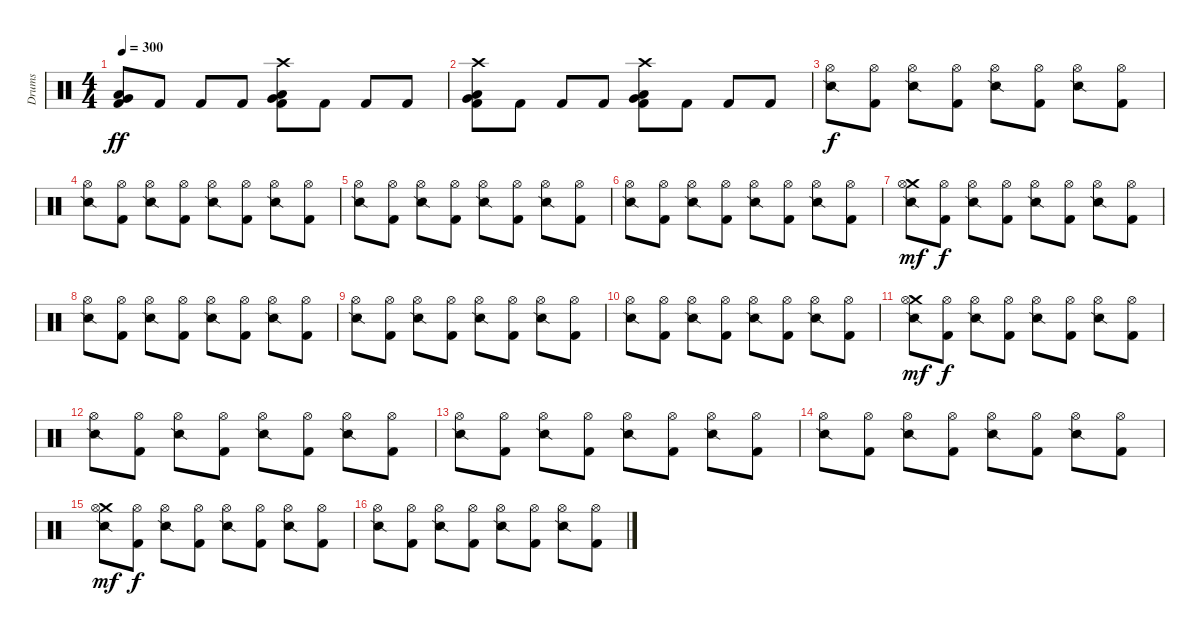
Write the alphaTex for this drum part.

\track (" Drums" " Drums") {instrument percussion}
\staff {score}
\articulation defaults
\ts (4 4)
\tempo 300
\clef neutral
\ks c
("Very Low Tom (hit)" "Low Tom (hit)" "Kick (hit) 2").8{dy ff} "Kick (hit) 2".8 "Kick (hit) 2".8 "Kick (hit) 2".8 ("Crash high (hit)" "Very Low Tom (hit)" "Low Tom (hit)" "Kick (hit) 2").8 "Kick (hit) 2".8 "Kick (hit) 2".8 "Kick (hit) 2".8 |
("Crash high (hit)" "Very Low Tom (hit)" "Low Tom (hit)" "Kick (hit) 2").8 "Kick (hit) 2".8 "Kick (hit) 2".8 "Kick (hit) 2".8 ("Crash high (hit)" "Very Low Tom (hit)" "Low Tom (hit)" "Kick (hit) 2").8 "Kick (hit) 2".8 "Kick (hit) 2".8 "Kick (hit) 2".8 |
("Hi-Hat (open)" "Snare (side stick) 2").8{dy f} ("Hi-Hat (open)" "Kick (hit) 2").8 ("Hi-Hat (open)" "Snare (side stick) 2").8 ("Hi-Hat (open)" "Kick (hit) 2").8 ("Hi-Hat (open)" "Snare (side stick) 2").8 ("Hi-Hat (open)" "Kick (hit) 2").8 ("Hi-Hat (open)" "Snare (side stick) 2").8 ("Hi-Hat (open)" "Kick (hit) 2").8 |
("Hi-Hat (open)" "Snare (side stick) 2").8 ("Hi-Hat (open)" "Kick (hit) 2").8 ("Hi-Hat (open)" "Snare (side stick) 2").8 ("Hi-Hat (open)" "Kick (hit) 2").8 ("Hi-Hat (open)" "Snare (side stick) 2").8 ("Hi-Hat (open)" "Kick (hit) 2").8 ("Hi-Hat (open)" "Snare (side stick) 2").8 ("Hi-Hat (open)" "Kick (hit) 2").8 |
("Hi-Hat (open)" "Snare (side stick) 2").8 ("Hi-Hat (open)" "Kick (hit) 2").8 ("Hi-Hat (open)" "Snare (side stick) 2").8 ("Hi-Hat (open)" "Kick (hit) 2").8 ("Hi-Hat (open)" "Snare (side stick) 2").8 ("Hi-Hat (open)" "Kick (hit) 2").8 ("Hi-Hat (open)" "Snare (side stick) 2").8 ("Hi-Hat (open)" "Kick (hit) 2").8 |
("Hi-Hat (open)" "Snare (side stick) 2").8 ("Hi-Hat (open)" "Kick (hit) 2").8 ("Hi-Hat (open)" "Snare (side stick) 2").8 ("Hi-Hat (open)" "Kick (hit) 2").8 ("Hi-Hat (open)" "Snare (side stick) 2").8 ("Hi-Hat (open)" "Kick (hit) 2").8 ("Hi-Hat (open)" "Snare (side stick) 2").8 ("Hi-Hat (open)" "Kick (hit) 2").8 |
("Crash medium (hit)" "Hi-Hat (open)" "Snare (side stick) 2").8{dy mf} ("Hi-Hat (open)" "Kick (hit) 2").8{dy f} ("Hi-Hat (open)" "Snare (side stick) 2").8 ("Hi-Hat (open)" "Kick (hit) 2").8 ("Hi-Hat (open)" "Snare (side stick) 2").8 ("Hi-Hat (open)" "Kick (hit) 2").8 ("Hi-Hat (open)" "Snare (side stick) 2").8 ("Hi-Hat (open)" "Kick (hit) 2").8 |
("Hi-Hat (open)" "Snare (side stick) 2").8 ("Hi-Hat (open)" "Kick (hit) 2").8 ("Hi-Hat (open)" "Snare (side stick) 2").8 ("Hi-Hat (open)" "Kick (hit) 2").8 ("Hi-Hat (open)" "Snare (side stick) 2").8 ("Hi-Hat (open)" "Kick (hit) 2").8 ("Hi-Hat (open)" "Snare (side stick) 2").8 ("Hi-Hat (open)" "Kick (hit) 2").8 |
("Hi-Hat (open)" "Snare (side stick) 2").8 ("Hi-Hat (open)" "Kick (hit) 2").8 ("Hi-Hat (open)" "Snare (side stick) 2").8 ("Hi-Hat (open)" "Kick (hit) 2").8 ("Hi-Hat (open)" "Snare (side stick) 2").8 ("Hi-Hat (open)" "Kick (hit) 2").8 ("Hi-Hat (open)" "Snare (side stick) 2").8 ("Hi-Hat (open)" "Kick (hit) 2").8 |
("Hi-Hat (open)" "Snare (side stick) 2").8 ("Hi-Hat (open)" "Kick (hit) 2").8 ("Hi-Hat (open)" "Snare (side stick) 2").8 ("Hi-Hat (open)" "Kick (hit) 2").8 ("Hi-Hat (open)" "Snare (side stick) 2").8 ("Hi-Hat (open)" "Kick (hit) 2").8 ("Hi-Hat (open)" "Snare (side stick) 2").8 ("Hi-Hat (open)" "Kick (hit) 2").8 |
("Crash medium (hit)" "Hi-Hat (open)" "Snare (side stick) 2").8{dy mf} ("Hi-Hat (open)" "Kick (hit) 2").8{dy f} ("Hi-Hat (open)" "Snare (side stick) 2").8 ("Hi-Hat (open)" "Kick (hit) 2").8 ("Hi-Hat (open)" "Snare (side stick) 2").8 ("Hi-Hat (open)" "Kick (hit) 2").8 ("Hi-Hat (open)" "Snare (side stick) 2").8 ("Hi-Hat (open)" "Kick (hit) 2").8 |
("Hi-Hat (open)" "Snare (side stick) 2").8 ("Hi-Hat (open)" "Kick (hit) 2").8 ("Hi-Hat (open)" "Snare (side stick) 2").8 ("Hi-Hat (open)" "Kick (hit) 2").8 ("Hi-Hat (open)" "Snare (side stick) 2").8 ("Hi-Hat (open)" "Kick (hit) 2").8 ("Hi-Hat (open)" "Snare (side stick) 2").8 ("Hi-Hat (open)" "Kick (hit) 2").8 |
("Hi-Hat (open)" "Snare (side stick) 2").8 ("Hi-Hat (open)" "Kick (hit) 2").8 ("Hi-Hat (open)" "Snare (side stick) 2").8 ("Hi-Hat (open)" "Kick (hit) 2").8 ("Hi-Hat (open)" "Snare (side stick) 2").8 ("Hi-Hat (open)" "Kick (hit) 2").8 ("Hi-Hat (open)" "Snare (side stick) 2").8 ("Hi-Hat (open)" "Kick (hit) 2").8 |
("Hi-Hat (open)" "Snare (side stick) 2").8 ("Hi-Hat (open)" "Kick (hit) 2").8 ("Hi-Hat (open)" "Snare (side stick) 2").8 ("Hi-Hat (open)" "Kick (hit) 2").8 ("Hi-Hat (open)" "Snare (side stick) 2").8 ("Hi-Hat (open)" "Kick (hit) 2").8 ("Hi-Hat (open)" "Snare (side stick) 2").8 ("Hi-Hat (open)" "Kick (hit) 2").8 |
("Crash medium (hit)" "Hi-Hat (open)" "Snare (side stick) 2").8{dy mf} ("Hi-Hat (open)" "Kick (hit) 2").8{dy f} ("Hi-Hat (open)" "Snare (side stick) 2").8 ("Hi-Hat (open)" "Kick (hit) 2").8 ("Hi-Hat (open)" "Snare (side stick) 2").8 ("Hi-Hat (open)" "Kick (hit) 2").8 ("Hi-Hat (open)" "Snare (side stick) 2").8 ("Hi-Hat (open)" "Kick (hit) 2").8 |
("Hi-Hat (open)" "Snare (side stick) 2").8 ("Hi-Hat (open)" "Kick (hit) 2").8 ("Hi-Hat (open)" "Snare (side stick) 2").8 ("Hi-Hat (open)" "Kick (hit) 2").8 ("Hi-Hat (open)" "Snare (side stick) 2").8 ("Hi-Hat (open)" "Kick (hit) 2").8 ("Hi-Hat (open)" "Snare (side stick) 2").8 ("Hi-Hat (open)" "Kick (hit) 2").8
